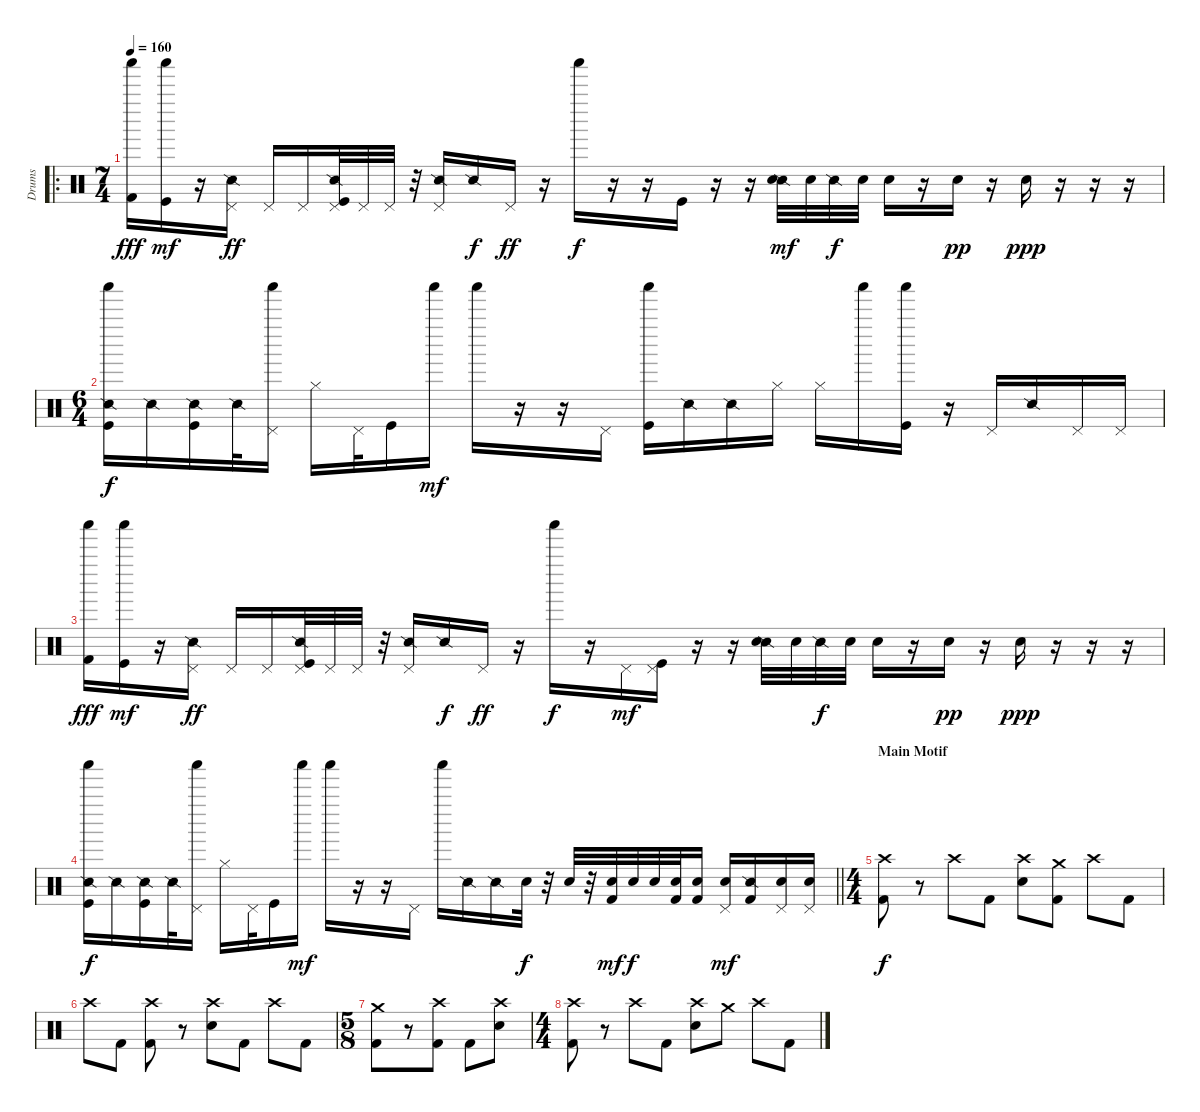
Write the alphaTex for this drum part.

\track ("Drums" "Drums") {instrument percussion}
\staff {score}
\articulation defaults
\ro
\ts (7 4)
\tempo 160
\clef neutral
\ks c
("Shaker (hit)" "Kick (hit) 2").16{dy fff} ("Shaker (hit)" "Kick (hit)").16{dy mf} r.16 ("Pedal Hi-Hat (hit)" "Snare (side stick) 2").16{dy ff} "Pedal Hi-Hat (hit)".16 "Pedal Hi-Hat (hit)".16 ("Pedal Hi-Hat (hit)" "Snare (side stick) 2" "Kick (hit)").32 "Pedal Hi-Hat (hit)".32 "Pedal Hi-Hat (hit)".32 r.32 ("Pedal Hi-Hat (hit)" "Snare (side stick) 2").16 "Snare (side stick) 2".16{dy f} "Pedal Hi-Hat (hit)".16{dy ff} r.16 "Shaker (hit)".16{dy f} r.16 r.16 "Kick (hit)".16 r.16 r.16 ("Snare (side stick) 2" "Snare (hit) 2").32{dy mf} "Snare (hit) 2".32 "Snare (side stick) 2".32{dy f} "Hand Clap (hit)".32 "Hand Clap (hit)".16 r.16 "Hand Clap (hit)".16{dy pp} r.16 "Hand Clap (hit)".16{dy ppp} r.16 r.16 r.16 |
\ts (6 4)
("Snare (side stick) 2" "Shaker (hit)" "Kick (hit)").16{dy f} "Snare (side stick) 2".16 ("Snare (side stick) 2" "Kick (hit)").16 "Snare (side stick) 2".32 ("Pedal Hi-Hat (hit)" "Shaker (hit)").16 "Hi-Hat (closed)".16 "Pedal Hi-Hat (hit)".32 "Kick (hit)".16 "Shaker (hit)".16{dy mf} "Shaker (hit)".16 r.16 r.16 "Pedal Hi-Hat (hit)".16 ("Shaker (hit)" "Kick (hit)").16 "Snare (side stick) 2".16 "Snare (side stick) 2".16 "Hi-Hat (closed)".16 "Hi-Hat (closed)".16 "Shaker (hit)".16 ("Shaker (hit)" "Kick (hit)").16 r.16 "Pedal Hi-Hat (hit)".16 "Snare (side stick) 2".16 "Pedal Hi-Hat (hit)".16 "Pedal Hi-Hat (hit)".16 |
("Shaker (hit)" "Kick (hit) 2").16{dy fff} ("Shaker (hit)" "Kick (hit)").16{dy mf} r.16 ("Pedal Hi-Hat (hit)" "Snare (side stick) 2").16{dy ff} "Pedal Hi-Hat (hit)".16 "Pedal Hi-Hat (hit)".16 ("Pedal Hi-Hat (hit)" "Snare (side stick) 2" "Kick (hit)").32 "Pedal Hi-Hat (hit)".32 "Pedal Hi-Hat (hit)".32 r.32 ("Pedal Hi-Hat (hit)" "Snare (side stick) 2").16 "Snare (side stick) 2".16{dy f} "Pedal Hi-Hat (hit)".16{dy ff} r.16 "Shaker (hit)".16{dy f} r.16 "Pedal Hi-Hat (hit)".16{dy mf} ("Pedal Hi-Hat (hit)" "Kick (hit)").16 r.16 r.16 ("Snare (side stick) 2" "Snare (hit) 2").32 "Snare (hit) 2".32 "Snare (side stick) 2".32{dy f} "Hand Clap (hit)".32 "Hand Clap (hit)".16 r.16 "Hand Clap (hit)".16{dy pp} r.16 "Hand Clap (hit)".16{dy ppp} r.16 r.16 r.16 |
\barLineRight lightlight
("Snare (side stick) 2" "Shaker (hit)" "Kick (hit)").16{dy f} "Snare (side stick) 2".16 ("Snare (side stick) 2" "Kick (hit)").16 "Snare (side stick) 2".32 ("Pedal Hi-Hat (hit)" "Shaker (hit)").16 "Hi-Hat (closed)".16 "Pedal Hi-Hat (hit)".32 "Kick (hit)".16 "Shaker (hit)".16{dy mf} "Shaker (hit)".16 r.16 r.16 "Pedal Hi-Hat (hit)".16 "Shaker (hit)".16 "Snare (side stick) 2".16 "Snare (side stick) 2".16 "Electric Snare (hit)".32{dy f} r.32 "Electric Snare (hit)".32 r.32 ("Electric Snare (hit)" "Kick (hit) 2").32{dy mf} "Electric Snare (hit)".32{dy f} "Electric Snare (hit)".32 ("Electric Snare (hit)" "Kick (hit) 2").32 ("Electric Snare (hit)" "Kick (hit) 2").16 ("Pedal Hi-Hat (hit)" "Electric Snare (hit)").16{dy mf} ("Snare (side stick) 2" "Kick (hit) 2").16 ("Pedal Hi-Hat (hit)" "Electric Snare (hit)").16 ("Pedal Hi-Hat (hit)" "Electric Snare (hit)").16 |
\ts (4 4)
\section ("" "Main Motif")
("Crash high (hit)" "Kick (hit) 2").8{dy f} r.8 "Crash high (hit)".8 "Kick (hit) 2".8 ("Crash high (hit)" "Electric Snare (hit)").8 ("Crash medium (hit)" "Kick (hit) 2").8 "Crash high (hit)".8 "Kick (hit) 2".8 |
"Crash high (hit)".8 "Kick (hit) 2".8 ("Crash high (hit)" "Kick (hit) 2").8 r.8 ("Crash high (hit)" "Electric Snare (hit)").8 "Kick (hit) 2".8 "Crash high (hit)".8 "Kick (hit) 2".8 |
\ts (5 8)
("Crash medium (hit)" "Kick (hit) 2").8 r.8 ("Crash high (hit)" "Kick (hit) 2").8 "Kick (hit) 2".8 ("Crash high (hit)" "Electric Snare (hit)").8 |
\ts (4 4)
("Crash high (hit)" "Kick (hit) 2").8 r.8 "Crash high (hit)".8 "Kick (hit) 2".8 ("Crash high (hit)" "Electric Snare (hit)").8 "Crash medium (hit)".8 "Crash high (hit)".8 "Kick (hit) 2".8
